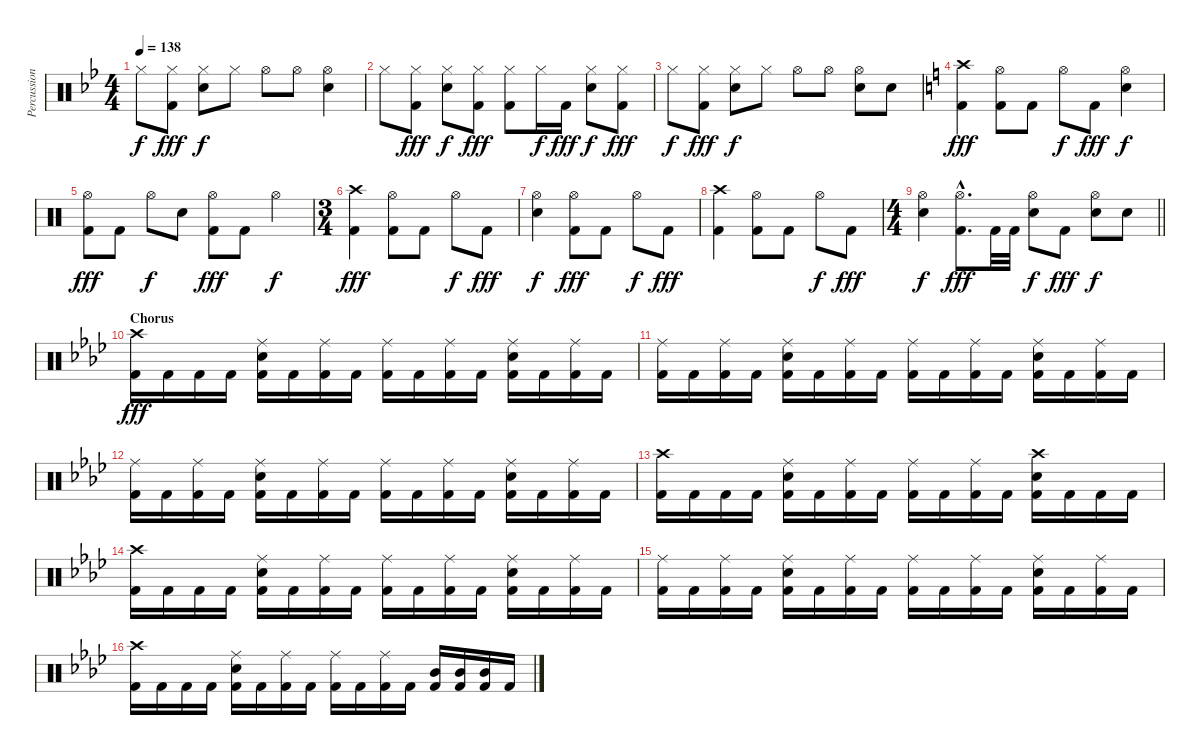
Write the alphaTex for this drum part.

\track ("Percussion" "Percussion") {instrument percussion}
\staff {score}
\articulation defaults
\ts (4 4)
\tempo 138
\clef neutral
\ks gminor "Hi-Hat (closed)".8{dy f}
("Hi-Hat (closed)" "Kick (hit) 2").8{dy fff} ("Hi-Hat (closed)" "Electric Snare (hit)").8{dy f} "Hi-Hat (closed)".8 "Hi-Hat (open)".8 "Hi-Hat (open)".8 ("Hi-Hat (open)" "Electric Snare (hit)").4 |
"Hi-Hat (closed)".8 ("Hi-Hat (closed)" "Kick (hit) 2").8{dy fff} ("Hi-Hat (closed)" "Electric Snare (hit)").8{dy f} ("Hi-Hat (closed)" "Kick (hit) 2").8{dy fff} ("Hi-Hat (closed)" "Kick (hit) 2").8 "Hi-Hat (closed)".16{dy f} "Kick (hit) 2".16{dy fff} ("Hi-Hat (closed)" "Electric Snare (hit)").8{dy f} ("Hi-Hat (closed)" "Kick (hit) 2").8{dy fff} |
"Hi-Hat (closed)".8{dy f} ("Hi-Hat (closed)" "Kick (hit) 2").8{dy fff} ("Hi-Hat (closed)" "Electric Snare (hit)").8{dy f} "Hi-Hat (closed)".8 "Hi-Hat (open)".8 "Hi-Hat (open)".8 ("Hi-Hat (open)" "Electric Snare (hit)").8 "Electric Snare (hit)".8 |
\ks aminor
("Crash high (hit)" "Kick (hit) 2").4{dy fff} ("Hi-Hat (open)" "Kick (hit) 2").8 "Kick (hit) 2".8 "Hi-Hat (open)".8{dy f} "Kick (hit) 2".8{dy fff} ("Hi-Hat (open)" "Electric Snare (hit)").4{dy f} |
("Hi-Hat (open)" "Kick (hit) 2").8{dy fff} "Kick (hit) 2".8 "Hi-Hat (open)".8{dy f} "Electric Snare (hit)".8 ("Hi-Hat (open)" "Kick (hit) 2").8{dy fff} "Kick (hit) 2".8 "Hi-Hat (open)".4{dy f} |
\ts (3 4)
("Crash high (hit)" "Kick (hit) 2").4{dy fff} ("Hi-Hat (open)" "Kick (hit) 2").8 "Kick (hit) 2".8 "Hi-Hat (open)".8{dy f} "Kick (hit) 2".8{dy fff} |
("Hi-Hat (open)" "Electric Snare (hit)").4{dy f} ("Hi-Hat (open)" "Kick (hit) 2").8{dy fff} "Kick (hit) 2".8 "Hi-Hat (open)".8{dy f} "Kick (hit) 2".8{dy fff} |
("Crash high (hit)" "Kick (hit) 2").4 ("Hi-Hat (open)" "Kick (hit) 2").8 "Kick (hit) 2".8 "Hi-Hat (open)".8{dy f} "Kick (hit) 2".8{dy fff} |
\ts (4 4)
\barLineRight lightlight
("Hi-Hat (open)" "Electric Snare (hit)").4{dy f} ("Hi-Hat (open)"{hac} "Kick (hit) 2"{hac}).8{d dy fff} "Kick (hit) 2".32 "Kick (hit) 2".32 ("Hi-Hat (open)" "Electric Snare (hit)").8{dy f} "Kick (hit) 2".8{dy fff} ("Hi-Hat (open)" "Electric Snare (hit)").8{dy f} "Electric Snare (hit)".8 |
\section ("" "Chorus")
\ks fminor
("Crash high (hit)" "Kick (hit) 2").16{dy fff} "Kick (hit) 2".16 "Kick (hit) 2".16 "Kick (hit) 2".16 ("Ride (middle)" "Electric Snare (hit)" "Kick (hit) 2").16 "Kick (hit) 2".16 ("Ride (middle)" "Kick (hit) 2").16 "Kick (hit) 2".16 ("Ride (middle)" "Kick (hit) 2").16 "Kick (hit) 2".16 ("Ride (middle)" "Kick (hit) 2").16 "Kick (hit) 2".16 ("Ride (middle)" "Electric Snare (hit)" "Kick (hit) 2").16 "Kick (hit) 2".16 ("Ride (middle)" "Kick (hit) 2").16 "Kick (hit) 2".16 |
("Ride (middle)" "Kick (hit) 2").16 "Kick (hit) 2".16 ("Ride (middle)" "Kick (hit) 2").16 "Kick (hit) 2".16 ("Ride (middle)" "Electric Snare (hit)" "Kick (hit) 2").16 "Kick (hit) 2".16 ("Ride (middle)" "Kick (hit) 2").16 "Kick (hit) 2".16 ("Ride (middle)" "Kick (hit) 2").16 "Kick (hit) 2".16 ("Ride (middle)" "Kick (hit) 2").16 "Kick (hit) 2".16 ("Ride (middle)" "Electric Snare (hit)" "Kick (hit) 2").16 "Kick (hit) 2".16 ("Ride (middle)" "Kick (hit) 2").16 "Kick (hit) 2".16 |
("Ride (middle)" "Kick (hit) 2").16 "Kick (hit) 2".16 ("Ride (middle)" "Kick (hit) 2").16 "Kick (hit) 2".16 ("Ride (middle)" "Electric Snare (hit)" "Kick (hit) 2").16 "Kick (hit) 2".16 ("Ride (middle)" "Kick (hit) 2").16 "Kick (hit) 2".16 ("Ride (middle)" "Kick (hit) 2").16 "Kick (hit) 2".16 ("Ride (middle)" "Kick (hit) 2").16 "Kick (hit) 2".16 ("Ride (middle)" "Electric Snare (hit)" "Kick (hit) 2").16 "Kick (hit) 2".16 ("Ride (middle)" "Kick (hit) 2").16 "Kick (hit) 2".16 |
("Crash high (hit)" "Kick (hit) 2").16 "Kick (hit) 2".16 "Kick (hit) 2".16 "Kick (hit) 2".16 ("Ride (middle)" "Electric Snare (hit)" "Kick (hit) 2").16 "Kick (hit) 2".16 ("Ride (middle)" "Kick (hit) 2").16 "Kick (hit) 2".16 ("Ride (middle)" "Kick (hit) 2").16 "Kick (hit) 2".16 ("Ride (middle)" "Kick (hit) 2").16 "Kick (hit) 2".16 ("Crash high (hit)" "Electric Snare (hit)" "Kick (hit) 2").16 "Kick (hit) 2".16 "Kick (hit) 2".16 "Kick (hit) 2".16 |
("Crash high (hit)" "Kick (hit) 2").16 "Kick (hit) 2".16 "Kick (hit) 2".16 "Kick (hit) 2".16 ("Ride (middle)" "Electric Snare (hit)" "Kick (hit) 2").16 "Kick (hit) 2".16 ("Ride (middle)" "Kick (hit) 2").16 "Kick (hit) 2".16 ("Ride (middle)" "Kick (hit) 2").16 "Kick (hit) 2".16 ("Ride (middle)" "Kick (hit) 2").16 "Kick (hit) 2".16 ("Ride (middle)" "Electric Snare (hit)" "Kick (hit) 2").16 "Kick (hit) 2".16 ("Ride (middle)" "Kick (hit) 2").16 "Kick (hit) 2".16 |
("Ride (middle)" "Kick (hit) 2").16 "Kick (hit) 2".16 ("Ride (middle)" "Kick (hit) 2").16 "Kick (hit) 2".16 ("Ride (middle)" "Electric Snare (hit)" "Kick (hit) 2").16 "Kick (hit) 2".16 ("Ride (middle)" "Kick (hit) 2").16 "Kick (hit) 2".16 ("Ride (middle)" "Kick (hit) 2").16 "Kick (hit) 2".16 ("Ride (middle)" "Kick (hit) 2").16 "Kick (hit) 2".16 ("Ride (middle)" "Electric Snare (hit)" "Kick (hit) 2").16 "Kick (hit) 2".16 ("Ride (middle)" "Kick (hit) 2").16 "Kick (hit) 2".16 |
("Crash high (hit)" "Kick (hit) 2").16 "Kick (hit) 2".16 "Kick (hit) 2".16 "Kick (hit) 2".16 ("Ride (middle)" "Electric Snare (hit)" "Kick (hit) 2").16 "Kick (hit) 2".16 ("Ride (middle)" "Kick (hit) 2").16 "Kick (hit) 2".16 ("Ride (middle)" "Kick (hit) 2").16 "Kick (hit) 2".16 ("Ride (middle)" "Kick (hit) 2").16 "Kick (hit) 2".16 ("Mid Tom (hit)" "Kick (hit) 2").16 ("Mid Tom (hit)" "Kick (hit) 2").16 ("Mid Tom (hit)" "Kick (hit) 2").16 "Kick (hit) 2".16
